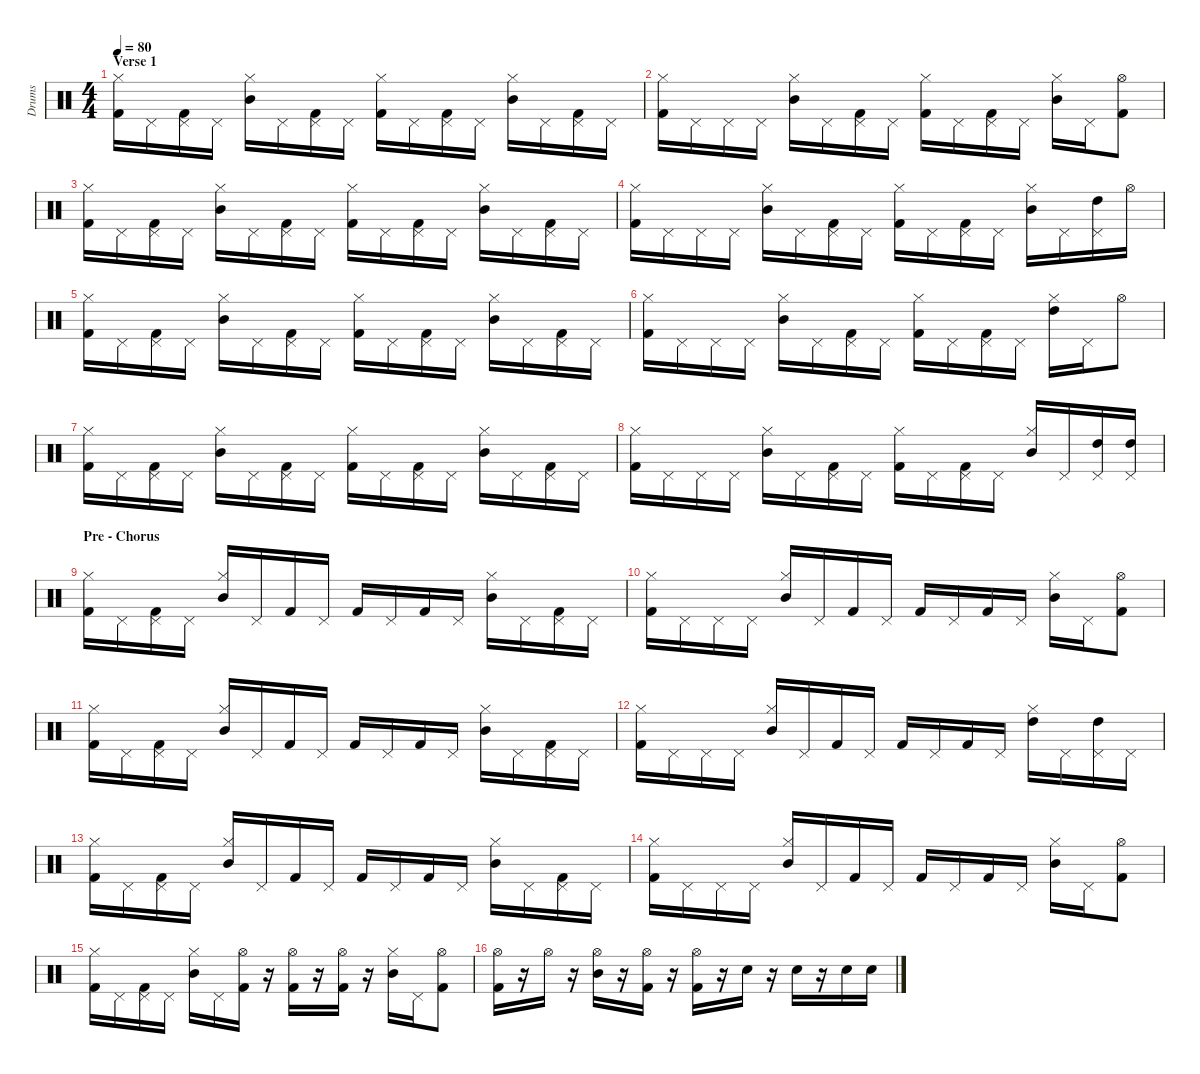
\hideDynamics
\bracketExtendMode nobrackets
\otherSystemsTrackNameOrientation horizontal
\track ("Drumkit" "Drums") {instrument percussion}
\staff {score}
\articulation defaults
\ts (4 4)
\section ("" "Verse 1")
\tempo 80
\clef neutral
\ks c
("Hi-Hat (closed)" "Kick (hit) 2").16{dy f beam Down} "Pedal Hi-Hat (hit)".16{beam Down} ("Pedal Hi-Hat (hit)" "Kick (hit) 2").16{beam Down} "Pedal Hi-Hat (hit)".16{beam Down} ("Hi-Hat (closed)" "Mid Tom (hit)").16{beam Down} "Pedal Hi-Hat (hit)".16{beam Down} ("Pedal Hi-Hat (hit)" "Kick (hit) 2").16{beam Down} "Pedal Hi-Hat (hit)".16{beam Down} ("Hi-Hat (closed)" "Kick (hit) 2").16{beam Down} "Pedal Hi-Hat (hit)".16{beam Down} ("Pedal Hi-Hat (hit)" "Kick (hit) 2").16{beam Down} "Pedal Hi-Hat (hit)".16{beam Down} ("Hi-Hat (closed)" "Mid Tom (hit)").16{beam Down} "Pedal Hi-Hat (hit)".16{beam Down} ("Pedal Hi-Hat (hit)" "Kick (hit) 2").16{beam Down} "Pedal Hi-Hat (hit)".16{beam Down} |
("Hi-Hat (closed)" "Kick (hit) 2").16{beam Down} "Pedal Hi-Hat (hit)".16{beam Down} "Pedal Hi-Hat (hit)".16{beam Down} "Pedal Hi-Hat (hit)".16{beam Down} ("Hi-Hat (closed)" "Mid Tom (hit)").16{beam Down} "Pedal Hi-Hat (hit)".16{beam Down} ("Pedal Hi-Hat (hit)" "Kick (hit) 2").16{beam Down} "Pedal Hi-Hat (hit)".16{beam Down} ("Hi-Hat (closed)" "Kick (hit) 2").16{beam Down} "Pedal Hi-Hat (hit)".16{beam Down} ("Pedal Hi-Hat (hit)" "Kick (hit) 2").16{beam Down} "Pedal Hi-Hat (hit)".16{beam Down} ("Hi-Hat (closed)" "Mid Tom (hit)").16{beam Down} "Pedal Hi-Hat (hit)".16{beam Down} ("Hi-Hat (open)" "Kick (hit) 2").8{beam Down} |
("Hi-Hat (closed)" "Kick (hit) 2").16{beam Down} "Pedal Hi-Hat (hit)".16{beam Down} ("Pedal Hi-Hat (hit)" "Kick (hit) 2").16{beam Down} "Pedal Hi-Hat (hit)".16{beam Down} ("Hi-Hat (closed)" "Mid Tom (hit)").16{beam Down} "Pedal Hi-Hat (hit)".16{beam Down} ("Pedal Hi-Hat (hit)" "Kick (hit) 2").16{beam Down} "Pedal Hi-Hat (hit)".16{beam Down} ("Hi-Hat (closed)" "Kick (hit) 2").16{beam Down} "Pedal Hi-Hat (hit)".16{beam Down} ("Pedal Hi-Hat (hit)" "Kick (hit) 2").16{beam Down} "Pedal Hi-Hat (hit)".16{beam Down} ("Hi-Hat (closed)" "Mid Tom (hit)").16{beam Down} "Pedal Hi-Hat (hit)".16{beam Down} ("Pedal Hi-Hat (hit)" "Kick (hit) 2").16{beam Down} "Pedal Hi-Hat (hit)".16{beam Down} |
("Hi-Hat (closed)" "Kick (hit) 2").16{beam Down} "Pedal Hi-Hat (hit)".16{beam Down} "Pedal Hi-Hat (hit)".16{beam Down} "Pedal Hi-Hat (hit)".16{beam Down} ("Hi-Hat (closed)" "Mid Tom (hit)").16{beam Down} "Pedal Hi-Hat (hit)".16{beam Down} ("Pedal Hi-Hat (hit)" "Kick (hit) 2").16{beam Down} "Pedal Hi-Hat (hit)".16{beam Down} ("Hi-Hat (closed)" "Kick (hit) 2").16{beam Down} "Pedal Hi-Hat (hit)".16{beam Down} ("Pedal Hi-Hat (hit)" "Kick (hit) 2").16{beam Down} "Pedal Hi-Hat (hit)".16{beam Down} ("Hi-Hat (closed)" "Mid Tom (hit)").16{beam Down} "Pedal Hi-Hat (hit)".16{beam Down} ("Pedal Hi-Hat (hit)" "High Tom (hit)").16{beam Down} "Hi-Hat (open)".16{beam Down} |
("Hi-Hat (closed)" "Kick (hit) 2").16{beam Down} "Pedal Hi-Hat (hit)".16{beam Down} ("Pedal Hi-Hat (hit)" "Kick (hit) 2").16{beam Down} "Pedal Hi-Hat (hit)".16{beam Down} ("Hi-Hat (closed)" "Mid Tom (hit)").16{beam Down} "Pedal Hi-Hat (hit)".16{beam Down} ("Pedal Hi-Hat (hit)" "Kick (hit) 2").16{beam Down} "Pedal Hi-Hat (hit)".16{beam Down} ("Hi-Hat (closed)" "Kick (hit) 2").16{beam Down} "Pedal Hi-Hat (hit)".16{beam Down} ("Pedal Hi-Hat (hit)" "Kick (hit) 2").16{beam Down} "Pedal Hi-Hat (hit)".16{beam Down} ("Hi-Hat (closed)" "Mid Tom (hit)").16{beam Down} "Pedal Hi-Hat (hit)".16{beam Down} ("Pedal Hi-Hat (hit)" "Kick (hit) 2").16{beam Down} "Pedal Hi-Hat (hit)".16{beam Down} |
("Hi-Hat (closed)" "Kick (hit) 2").16{beam Down} "Pedal Hi-Hat (hit)".16{beam Down} "Pedal Hi-Hat (hit)".16{beam Down} "Pedal Hi-Hat (hit)".16{beam Down} ("Hi-Hat (closed)" "Mid Tom (hit)").16{beam Down} "Pedal Hi-Hat (hit)".16{beam Down} ("Pedal Hi-Hat (hit)" "Kick (hit) 2").16{beam Down} "Pedal Hi-Hat (hit)".16{beam Down} ("Hi-Hat (closed)" "Kick (hit) 2").16{beam Down} "Pedal Hi-Hat (hit)".16{beam Down} ("Pedal Hi-Hat (hit)" "Kick (hit) 2").16{beam Down} "Pedal Hi-Hat (hit)".16{beam Down} ("Hi-Hat (closed)" "High Tom (hit)").16{beam Down} "Pedal Hi-Hat (hit)".16{beam Down} "Hi-Hat (open)".8{beam Down} |
("Hi-Hat (closed)" "Kick (hit) 2").16{beam Down} "Pedal Hi-Hat (hit)".16{beam Down} ("Pedal Hi-Hat (hit)" "Kick (hit) 2").16{beam Down} "Pedal Hi-Hat (hit)".16{beam Down} ("Hi-Hat (closed)" "Mid Tom (hit)").16{beam Down} "Pedal Hi-Hat (hit)".16{beam Down} ("Pedal Hi-Hat (hit)" "Kick (hit) 2").16{beam Down} "Pedal Hi-Hat (hit)".16{beam Down} ("Hi-Hat (closed)" "Kick (hit) 2").16{beam Down} "Pedal Hi-Hat (hit)".16{beam Down} ("Pedal Hi-Hat (hit)" "Kick (hit) 2").16{beam Down} "Pedal Hi-Hat (hit)".16{beam Down} ("Hi-Hat (closed)" "Mid Tom (hit)").16{beam Down} "Pedal Hi-Hat (hit)".16{beam Down} ("Pedal Hi-Hat (hit)" "Kick (hit) 2").16{beam Down} "Pedal Hi-Hat (hit)".16{beam Down} |
("Hi-Hat (closed)" "Kick (hit) 2").16{beam Down} "Pedal Hi-Hat (hit)".16{beam Down} "Pedal Hi-Hat (hit)".16{beam Down} "Pedal Hi-Hat (hit)".16{beam Down} ("Hi-Hat (closed)" "Mid Tom (hit)").16{beam Down} "Pedal Hi-Hat (hit)".16{beam Down} ("Pedal Hi-Hat (hit)" "Kick (hit) 2").16{beam Down} "Pedal Hi-Hat (hit)".16{beam Down} ("Hi-Hat (closed)" "Kick (hit) 2").16{beam Down} "Pedal Hi-Hat (hit)".16{beam Down} ("Pedal Hi-Hat (hit)" "Kick (hit) 2").16{beam Down} "Pedal Hi-Hat (hit)".16{beam Down} ("Hi-Hat (closed)" "Mid Tom (hit)").16{beam Up} "Pedal Hi-Hat (hit)".16{beam Up} ("Pedal Hi-Hat (hit)" "High Tom (hit)").16{beam Up} ("Pedal Hi-Hat (hit)" "High Tom (hit)").16{beam Up} |
\section ("" "Pre - Chorus")
("Hi-Hat (closed)" "Kick (hit) 2").16{beam Down} "Pedal Hi-Hat (hit)".16{beam Down} ("Pedal Hi-Hat (hit)" "Kick (hit) 2").16{beam Down} "Pedal Hi-Hat (hit)".16{beam Down} ("Hi-Hat (closed)" "Mid Tom (hit)").16{beam Up} "Pedal Hi-Hat (hit)".16{beam Up} "Kick (hit) 2".16{beam Up} "Pedal Hi-Hat (hit)".16{beam Up} "Kick (hit) 2".16{beam Up} "Pedal Hi-Hat (hit)".16{beam Up} "Kick (hit) 2".16{beam Up} "Pedal Hi-Hat (hit)".16{beam Up} ("Hi-Hat (closed)" "Mid Tom (hit)").16{beam Down} "Pedal Hi-Hat (hit)".16{beam Down} ("Pedal Hi-Hat (hit)" "Kick (hit) 2").16{beam Down} "Pedal Hi-Hat (hit)".16{beam Down} |
("Hi-Hat (closed)" "Kick (hit) 2").16{beam Down} "Pedal Hi-Hat (hit)".16{beam Down} "Pedal Hi-Hat (hit)".16{beam Down} "Pedal Hi-Hat (hit)".16{beam Down} ("Hi-Hat (closed)" "Mid Tom (hit)").16{beam Up} "Pedal Hi-Hat (hit)".16{beam Up} "Kick (hit) 2".16{beam Up} "Pedal Hi-Hat (hit)".16{beam Up} "Kick (hit) 2".16{beam Up} "Pedal Hi-Hat (hit)".16{beam Up} "Kick (hit) 2".16{beam Up} "Pedal Hi-Hat (hit)".16{beam Up} ("Hi-Hat (closed)" "Mid Tom (hit)").16{beam Down} "Pedal Hi-Hat (hit)".16{beam Down} ("Hi-Hat (open)" "Kick (hit) 2").8{beam Down} |
("Hi-Hat (closed)" "Kick (hit) 2").16{beam Down} "Pedal Hi-Hat (hit)".16{beam Down} ("Pedal Hi-Hat (hit)" "Kick (hit) 2").16{beam Down} "Pedal Hi-Hat (hit)".16{beam Down} ("Hi-Hat (closed)" "Mid Tom (hit)").16{beam Up} "Pedal Hi-Hat (hit)".16{beam Up} "Kick (hit) 2".16{beam Up} "Pedal Hi-Hat (hit)".16{beam Up} "Kick (hit) 2".16{beam Up} "Pedal Hi-Hat (hit)".16{beam Up} "Kick (hit) 2".16{beam Up} "Pedal Hi-Hat (hit)".16{beam Up} ("Hi-Hat (closed)" "Mid Tom (hit)").16{beam Down} "Pedal Hi-Hat (hit)".16{beam Down} ("Pedal Hi-Hat (hit)" "Kick (hit) 2").16{beam Down} "Pedal Hi-Hat (hit)".16{beam Down} |
("Hi-Hat (closed)" "Kick (hit) 2").16{beam Down} "Pedal Hi-Hat (hit)".16{beam Down} "Pedal Hi-Hat (hit)".16{beam Down} "Pedal Hi-Hat (hit)".16{beam Down} ("Hi-Hat (closed)" "Mid Tom (hit)").16{beam Up} "Pedal Hi-Hat (hit)".16{beam Up} "Kick (hit) 2".16{beam Up} "Pedal Hi-Hat (hit)".16{beam Up} "Kick (hit) 2".16{beam Up} "Pedal Hi-Hat (hit)".16{beam Up} "Kick (hit) 2".16{beam Up} "Pedal Hi-Hat (hit)".16{beam Up} ("Hi-Hat (closed)" "High Tom (hit)").16{beam Down} "Pedal Hi-Hat (hit)".16{beam Down} ("Pedal Hi-Hat (hit)" "High Tom (hit)").16{beam Down} "Pedal Hi-Hat (hit)".16{beam Down} |
("Hi-Hat (closed)" "Kick (hit) 2").16{beam Down} "Pedal Hi-Hat (hit)".16{beam Down} ("Pedal Hi-Hat (hit)" "Kick (hit) 2").16{beam Down} "Pedal Hi-Hat (hit)".16{beam Down} ("Hi-Hat (closed)" "Mid Tom (hit)").16{beam Up} "Pedal Hi-Hat (hit)".16{beam Up} "Kick (hit) 2".16{beam Up} "Pedal Hi-Hat (hit)".16{beam Up} "Kick (hit) 2".16{beam Up} "Pedal Hi-Hat (hit)".16{beam Up} "Kick (hit) 2".16{beam Up} "Pedal Hi-Hat (hit)".16{beam Up} ("Hi-Hat (closed)" "Mid Tom (hit)").16{beam Down} "Pedal Hi-Hat (hit)".16{beam Down} ("Pedal Hi-Hat (hit)" "Kick (hit) 2").16{beam Down} "Pedal Hi-Hat (hit)".16{beam Down} |
("Hi-Hat (closed)" "Kick (hit) 2").16{beam Down} "Pedal Hi-Hat (hit)".16{beam Down} "Pedal Hi-Hat (hit)".16{beam Down} "Pedal Hi-Hat (hit)".16{beam Down} ("Hi-Hat (closed)" "Mid Tom (hit)").16{beam Up} "Pedal Hi-Hat (hit)".16{beam Up} "Kick (hit) 2".16{beam Up} "Pedal Hi-Hat (hit)".16{beam Up} "Kick (hit) 2".16{beam Up} "Pedal Hi-Hat (hit)".16{beam Up} "Kick (hit) 2".16{beam Up} "Pedal Hi-Hat (hit)".16{beam Up} ("Hi-Hat (closed)" "Mid Tom (hit)").16{beam Down} "Pedal Hi-Hat (hit)".16{beam Down} ("Hi-Hat (open)" "Kick (hit) 2").8{beam Down} |
("Hi-Hat (closed)" "Kick (hit) 2").16{beam Down} "Pedal Hi-Hat (hit)".16{beam Down} ("Pedal Hi-Hat (hit)" "Kick (hit) 2").16{beam Down} "Pedal Hi-Hat (hit)".16{beam Down} ("Hi-Hat (closed)" "Mid Tom (hit)").16{beam Down} "Pedal Hi-Hat (hit)".16{beam Down} ("Hi-Hat (open)" "Kick (hit) 2").16{beam Down} r.16{beam Down} ("Hi-Hat (open)" "Kick (hit) 2").16{beam Down} r.16{beam Down} ("Hi-Hat (open)" "Kick (hit) 2").16{beam Down} r.16{beam Down} ("Hi-Hat (closed)" "Mid Tom (hit)").16{beam Down} "Pedal Hi-Hat (hit)".16{beam Down} ("Hi-Hat (open)" "Kick (hit) 2").8{beam Down} |
("Hi-Hat (open)" "Kick (hit) 2").16{beam Down} r.16{beam Down} "Hi-Hat (open)".16{beam Down} r.16{beam Down} ("Hi-Hat (open)" "Mid Tom (hit)").16{beam Down} r.16{beam Down} ("Hi-Hat (open)" "Kick (hit) 2").16{beam Down} r.16{beam Down} ("Hi-Hat (open)" "Kick (hit) 2").16{beam Down} r.16{beam Down} "Snare (hit) 2".16{beam Down} r.16{beam Down} "Snare (hit) 2".16{beam Down} r.16{beam Down} "Snare (hit) 2".16{beam Down} "Snare (hit) 2".16{beam Down}
